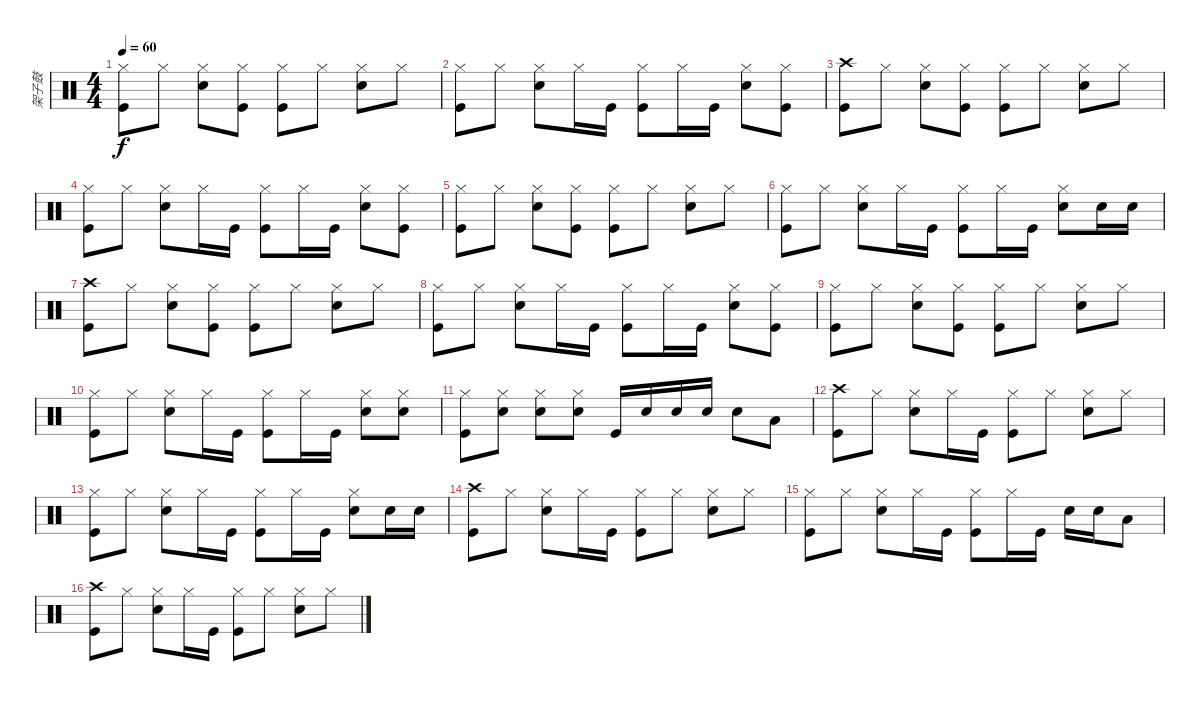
\track ("架子鼓" "架子鼓") {instrument percussion}
\staff {score}
\articulation defaults
\ts (4 4)
\tempo 60
\clef neutral
\ks c
("Hi-Hat (closed)" "Kick (hit)").8{dy f} "Hi-Hat (closed)".8 ("Hi-Hat (closed)" "Snare (hit) 2").8 ("Hi-Hat (closed)" "Kick (hit)").8 ("Hi-Hat (closed)" "Kick (hit)").8 "Hi-Hat (closed)".8 ("Hi-Hat (closed)" "Snare (hit) 2").8 "Hi-Hat (closed)".8 |
("Hi-Hat (closed)" "Kick (hit)").8 "Hi-Hat (closed)".8 ("Hi-Hat (closed)" "Snare (hit) 2").8 "Hi-Hat (closed)".16 "Kick (hit)".16 ("Hi-Hat (closed)" "Kick (hit)").8 "Hi-Hat (closed)".16 "Kick (hit)".16 ("Hi-Hat (closed)" "Snare (hit) 2").8 ("Hi-Hat (closed)" "Kick (hit)").8 |
("Crash high (hit)" "Kick (hit)").8 "Hi-Hat (closed)".8 ("Hi-Hat (closed)" "Snare (hit) 2").8 ("Hi-Hat (closed)" "Kick (hit)").8 ("Hi-Hat (closed)" "Kick (hit)").8 "Hi-Hat (closed)".8 ("Hi-Hat (closed)" "Snare (hit) 2").8 "Hi-Hat (closed)".8 |
("Hi-Hat (closed)" "Kick (hit)").8 "Hi-Hat (closed)".8 ("Hi-Hat (closed)" "Snare (hit) 2").8 "Hi-Hat (closed)".16 "Kick (hit)".16 ("Hi-Hat (closed)" "Kick (hit)").8 "Hi-Hat (closed)".16 "Kick (hit)".16 ("Hi-Hat (closed)" "Snare (hit) 2").8 ("Hi-Hat (closed)" "Kick (hit)").8 |
("Hi-Hat (closed)" "Kick (hit)").8 "Hi-Hat (closed)".8 ("Hi-Hat (closed)" "Snare (hit) 2").8 ("Hi-Hat (closed)" "Kick (hit)").8 ("Hi-Hat (closed)" "Kick (hit)").8 "Hi-Hat (closed)".8 ("Hi-Hat (closed)" "Snare (hit) 2").8 "Hi-Hat (closed)".8 |
("Hi-Hat (closed)" "Kick (hit)").8 "Hi-Hat (closed)".8 ("Hi-Hat (closed)" "Snare (hit) 2").8 "Hi-Hat (closed)".16 "Kick (hit)".16 ("Hi-Hat (closed)" "Kick (hit)").8 "Hi-Hat (closed)".16 "Kick (hit)".16 ("Hi-Hat (closed)" "Snare (hit) 2").8 "Snare (hit) 2".16 "Snare (hit) 2".16 |
("Crash high (hit)" "Kick (hit)").8 "Hi-Hat (closed)".8 ("Hi-Hat (closed)" "Snare (hit) 2").8 ("Hi-Hat (closed)" "Kick (hit)").8 ("Hi-Hat (closed)" "Kick (hit)").8 "Hi-Hat (closed)".8 ("Hi-Hat (closed)" "Snare (hit) 2").8 "Hi-Hat (closed)".8 |
("Hi-Hat (closed)" "Kick (hit)").8 "Hi-Hat (closed)".8 ("Hi-Hat (closed)" "Snare (hit) 2").8 "Hi-Hat (closed)".16 "Kick (hit)".16 ("Hi-Hat (closed)" "Kick (hit)").8 "Hi-Hat (closed)".16 "Kick (hit)".16 ("Hi-Hat (closed)" "Snare (hit) 2").8 ("Hi-Hat (closed)" "Kick (hit)").8 |
("Hi-Hat (closed)" "Kick (hit)").8 "Hi-Hat (closed)".8 ("Hi-Hat (closed)" "Snare (hit) 2").8 ("Hi-Hat (closed)" "Kick (hit)").8 ("Hi-Hat (closed)" "Kick (hit)").8 "Hi-Hat (closed)".8 ("Hi-Hat (closed)" "Snare (hit) 2").8 "Hi-Hat (closed)".8 |
("Hi-Hat (closed)" "Kick (hit)").8 "Hi-Hat (closed)".8 ("Hi-Hat (closed)" "Snare (hit) 2").8 "Hi-Hat (closed)".16 "Kick (hit)".16 ("Hi-Hat (closed)" "Kick (hit)").8 "Hi-Hat (closed)".16 "Kick (hit)".16 ("Hi-Hat (closed)" "Snare (hit) 2").8 ("Hi-Hat (closed)" "Snare (hit) 2").8 |
("Hi-Hat (closed)" "Kick (hit)").8 ("Hi-Hat (closed)" "Snare (hit) 2").8 ("Hi-Hat (closed)" "Snare (hit) 2").8 ("Hi-Hat (closed)" "Snare (hit) 2").8 "Kick (hit)".16 "Snare (hit) 2".16 "Snare (hit) 2".16 "Snare (hit) 2".16 "Snare (hit) 2".8 "Low Tom (hit)".8 |
("Crash high (hit)" "Kick (hit)").8 "Hi-Hat (closed)".8 ("Hi-Hat (closed)" "Snare (hit) 2").8 "Hi-Hat (closed)".16 "Kick (hit)".16 ("Hi-Hat (closed)" "Kick (hit)").8 "Hi-Hat (closed)".8 ("Hi-Hat (closed)" "Snare (hit) 2").8 "Hi-Hat (closed)".8 |
("Hi-Hat (closed)" "Kick (hit)").8 "Hi-Hat (closed)".8 ("Hi-Hat (closed)" "Snare (hit) 2").8 "Hi-Hat (closed)".16 "Kick (hit)".16 ("Hi-Hat (closed)" "Kick (hit)").8 "Hi-Hat (closed)".16 "Kick (hit)".16 ("Hi-Hat (closed)" "Snare (hit) 2").8 "Snare (hit) 2".16 "Snare (hit) 2".16 |
("Crash high (hit)" "Kick (hit)").8 "Hi-Hat (closed)".8 ("Hi-Hat (closed)" "Snare (hit) 2").8 "Hi-Hat (closed)".16 "Kick (hit)".16 ("Hi-Hat (closed)" "Kick (hit)").8 "Hi-Hat (closed)".8 ("Hi-Hat (closed)" "Snare (hit) 2").8 "Hi-Hat (closed)".8 |
("Hi-Hat (closed)" "Kick (hit)").8 "Hi-Hat (closed)".8 ("Hi-Hat (closed)" "Snare (hit) 2").8 "Hi-Hat (closed)".16 "Kick (hit)".16 ("Hi-Hat (closed)" "Kick (hit)").8 "Hi-Hat (closed)".16 "Kick (hit)".16 "Snare (hit) 2".16 "Snare (hit) 2".16 "Low Tom (hit)".8 |
("Crash high (hit)" "Kick (hit)").8 "Hi-Hat (closed)".8 ("Hi-Hat (closed)" "Snare (hit) 2").8 "Hi-Hat (closed)".16 "Kick (hit)".16 ("Hi-Hat (closed)" "Kick (hit)").8 "Hi-Hat (closed)".8 ("Hi-Hat (closed)" "Snare (hit) 2").8 "Hi-Hat (closed)".8
